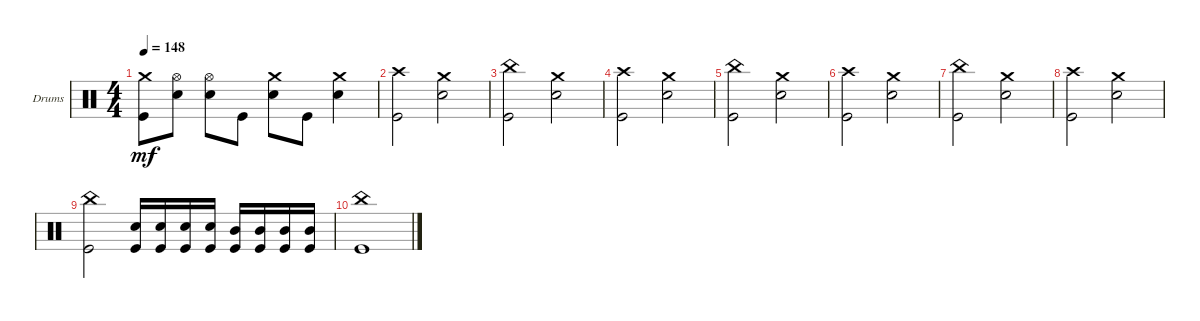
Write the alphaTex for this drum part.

\bracketExtendMode groupsimilarinstruments
\firstSystemTrackNameOrientation horizontal
\otherSystemsTrackNameOrientation horizontal
\track ("Drumkit" "Drums") {instrument percussion}
\staff {score}
\articulation defaults
\ts (4 4)
\tempo 148
\clef neutral
\scale
0.333333
\ks c
("Kick (hit)" "Crash medium (hit)").8{dy mf} ("Snare (hit) 2" "Hi-Hat (open)").8 ("Snare (hit) 2" "Hi-Hat (open)").8 "Kick (hit)".8 ("Snare (hit) 2" "Crash medium (hit)").8 "Kick (hit)".8 ("Snare (hit) 2" "Crash medium (hit)").4 |
("Kick (hit)" "Crash high (hit)").2 ("Crash medium (hit)" "Snare (hit) 2").2 |
\scale
0.333333 ("China (hit)" "Kick (hit)").2 ("Snare (hit) 2" "Crash medium (hit)").2 |
\scale
0.333333 ("Kick (hit)" "Crash high (hit)").2 ("Crash medium (hit)" "Snare (hit) 2").2 |
\scale
0.333333 ("China (hit)" "Kick (hit)").2 ("Snare (hit) 2" "Crash medium (hit)").2 |
\scale
0.333333 ("Kick (hit)" "Crash high (hit)").2 ("Crash medium (hit)" "Snare (hit) 2").2 |
\scale
0.333333 ("China (hit)" "Kick (hit)").2 ("Snare (hit) 2" "Crash medium (hit)").2 |
\scale
0.333333 ("Kick (hit)" "Crash high (hit)").2 ("Crash medium (hit)" "Snare (hit) 2").2 |
\scale
0.333333 ("Kick (hit)" "China (hit)").2 ("Snare (hit) 2" "Kick (hit)").16 ("Snare (hit) 2" "Kick (hit)").16 ("Snare (hit) 2" "Kick (hit)").16 ("Snare (hit) 2" "Kick (hit)").16 ("Mid Tom (hit)" "Kick (hit)").16 ("Mid Tom (hit)" "Kick (hit)").16 ("Mid Tom (hit)" "Kick (hit)").16 ("Mid Tom (hit)" "Kick (hit)").16 |
\scale
0.333333 ("Kick (hit)" "China (hit)").1 |
\scale
0.333333
